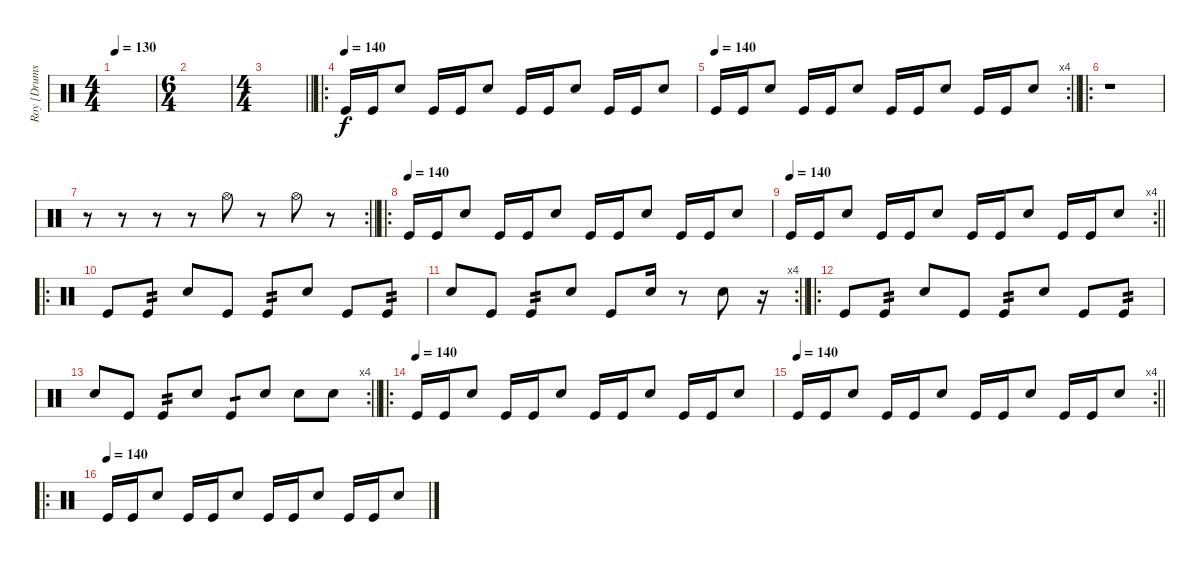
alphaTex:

\track ("Roy [Drums]" "Roy [Drums") {instrument percussion}
\staff {score}
\articulation defaults
\ts (4 4)
\tempo 130
\clef neutral
\ks c
|
\ts (6 4)
|
\ts (4 4)
\barLineRight lightlight
|
\ro
\section ("" "")
\tempo (140)
"Kick (hit)".16 "Kick (hit)".16 "Electric Snare (hit)".8 "Kick (hit)".16 "Kick (hit)".16 "Electric Snare (hit)".8 "Kick (hit)".16 "Kick (hit)".16 "Electric Snare (hit)".8 "Kick (hit)".16 "Kick (hit)".16 "Electric Snare (hit)".8 |
\rc 4
\tempo 140
\barLineRight lightlight "Kick (hit)".16 "Kick (hit)".16 "Electric Snare (hit)".8 "Kick (hit)".16 "Kick (hit)".16 "Electric Snare (hit)".8 "Kick (hit)".16 "Kick (hit)".16 "Electric Snare (hit)".8 "Kick (hit)".16 "Kick (hit)".16 "Electric Snare (hit)".8
|
\ro
\section ("" "")
r.1 |
\rc 2
\barLineRight lightlight
r.8 r.8 r.8 r.8 "Hi-Hat (open)".8 r.8 "Hi-Hat (open)".8 r.8 |
\ro
\section ("" "")
\tempo (140)
"Kick (hit)".16 "Kick (hit)".16 "Electric Snare (hit)".8 "Kick (hit)".16 "Kick (hit)".16 "Electric Snare (hit)".8 "Kick (hit)".16 "Kick (hit)".16 "Electric Snare (hit)".8 "Kick (hit)".16 "Kick (hit)".16 "Electric Snare (hit)".8 |
\rc 4
\tempo 140
\barLineRight lightlight "Kick (hit)".16 "Kick (hit)".16 "Electric Snare (hit)".8 "Kick (hit)".16 "Kick (hit)".16 "Electric Snare (hit)".8 "Kick (hit)".16 "Kick (hit)".16 "Electric Snare (hit)".8 "Kick (hit)".16 "Kick (hit)".16 "Electric Snare (hit)".8
|
\ro
\section ("" "")
"Kick (hit)".8 "Kick (hit)".8{tp 2} "Electric Snare (hit)".8 "Kick (hit)".8 "Kick (hit)".8{tp 2} "Electric Snare (hit)".8 "Kick (hit)".8 "Kick (hit)".8{tp 2} |
\rc 4
\barLineRight lightlight "Electric Snare (hit)".8 "Kick (hit)".8 "Kick (hit)".8{tp 2} "Electric Snare (hit)".8 "Kick (hit)".8 "Electric Snare (hit)".16
r.8 "Electric Snare (hit)".8 r.16 |
\ro
\section ("" "")
"Kick (hit)".8 "Kick (hit)".8{tp 2} "Electric Snare (hit)".8 "Kick (hit)".8 "Kick (hit)".8{tp 2} "Electric Snare (hit)".8 "Kick (hit)".8 "Kick (hit)".8{tp 2} |
\rc 4
\barLineRight lightlight "Electric Snare (hit)".8 "Kick (hit)".8 "Kick (hit)".8{tp 2} "Electric Snare (hit)".8 "Kick (hit)".8{tp 1} "Electric Snare (hit)".8 "Electric Snare (hit)".8 "Electric Snare (hit)".8
|
\ro
\section ("" "")
\tempo (140)
"Kick (hit)".16 "Kick (hit)".16 "Electric Snare (hit)".8 "Kick (hit)".16 "Kick (hit)".16 "Electric Snare (hit)".8 "Kick (hit)".16 "Kick (hit)".16 "Electric Snare (hit)".8 "Kick (hit)".16 "Kick (hit)".16 "Electric Snare (hit)".8 |
\rc 4
\tempo 140
\barLineRight lightlight "Kick (hit)".16 "Kick (hit)".16 "Electric Snare (hit)".8 "Kick (hit)".16 "Kick (hit)".16 "Electric Snare (hit)".8 "Kick (hit)".16 "Kick (hit)".16 "Electric Snare (hit)".8 "Kick (hit)".16 "Kick (hit)".16 "Electric Snare (hit)".8
|
\ro
\section ("" "")
\tempo (140)
"Kick (hit)".16 "Kick (hit)".16 "Electric Snare (hit)".8 "Kick (hit)".16 "Kick (hit)".16 "Electric Snare (hit)".8 "Kick (hit)".16 "Kick (hit)".16 "Electric Snare (hit)".8 "Kick (hit)".16 "Kick (hit)".16 "Electric Snare (hit)".8
